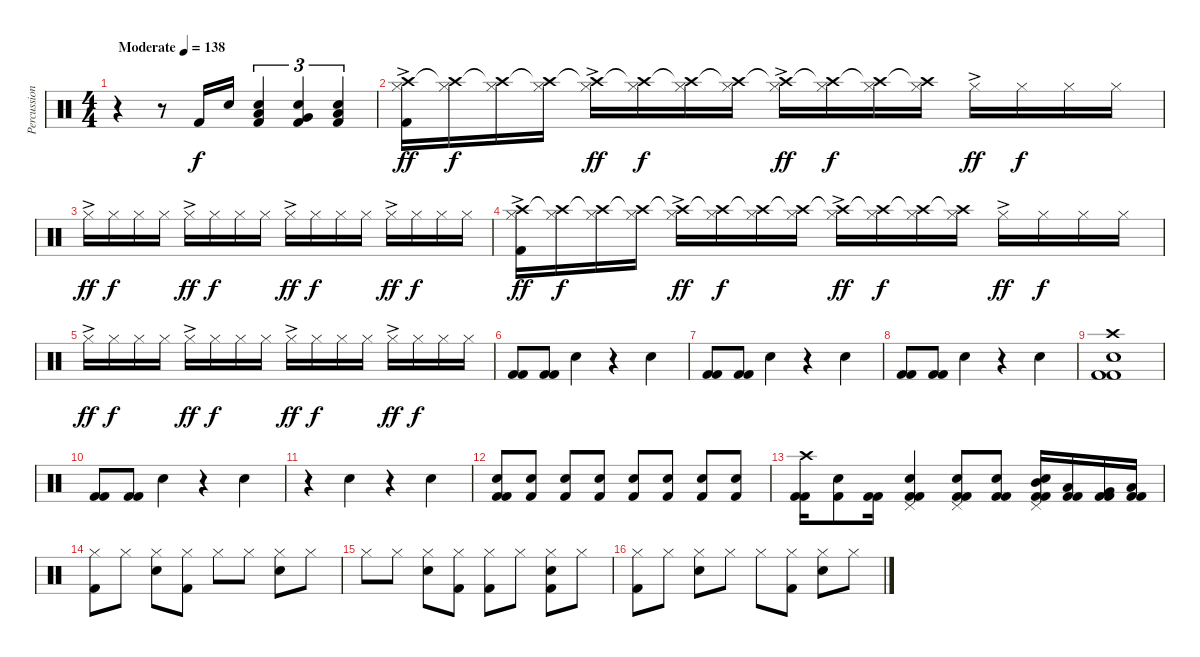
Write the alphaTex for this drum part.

\track ("Percussion" "Percussion") {instrument percussion}
\staff {score}
\articulation defaults
\ts (4 4)
\tempo (138 "Moderate")
\clef neutral
\ks c
r.4{dy f} r.8 "Kick (hit) 2".16 "Snare (hit) 2".16 ("Low Tom (hit)" "Snare (hit) 2" "Kick (hit) 2").4{tu (3 2)} ("Very Low Tom (hit)" "Snare (hit) 2" "Kick (hit) 2").4{tu (3 2)} ("Low Floor Tom (hit)" "Snare (hit) 2" "Kick (hit) 2").4{tu (3 2)} |
("Hi-Hat (closed)"{ac} "Crash high (hit)" "Kick (hit) 2").16{dy ff} ("Hi-Hat (closed)" "Crash high (hit)"{t}).16{dy f} ("Hi-Hat (closed)" "Crash high (hit)"{t}).16 ("Hi-Hat (closed)" "Crash high (hit)"{t}).16 ("Hi-Hat (closed)"{ac} "Crash high (hit)"{t}).16{dy ff} ("Hi-Hat (closed)" "Crash high (hit)"{t}).16{dy f} ("Hi-Hat (closed)" "Crash high (hit)"{t}).16 ("Hi-Hat (closed)" "Crash high (hit)"{t}).16 ("Hi-Hat (closed)"{ac} "Crash high (hit)"{t}).16{dy ff} ("Hi-Hat (closed)" "Crash high (hit)"{t}).16{dy f} ("Hi-Hat (closed)" "Crash high (hit)"{t}).16 ("Hi-Hat (closed)" "Crash high (hit)"{t}).16 "Hi-Hat (closed)"{ac}.16{dy ff} "Hi-Hat (closed)".16{dy f} "Hi-Hat (closed)".16 "Hi-Hat (closed)".16 |
"Hi-Hat (closed)"{ac}.16{dy ff} "Hi-Hat (closed)".16{dy f} "Hi-Hat (closed)".16 "Hi-Hat (closed)".16 "Hi-Hat (closed)"{ac}.16{dy ff} "Hi-Hat (closed)".16{dy f} "Hi-Hat (closed)".16 "Hi-Hat (closed)".16 "Hi-Hat (closed)"{ac}.16{dy ff} "Hi-Hat (closed)".16{dy f} "Hi-Hat (closed)".16 "Hi-Hat (closed)".16 "Hi-Hat (closed)"{ac}.16{dy ff} "Hi-Hat (closed)".16{dy f} "Hi-Hat (closed)".16 "Hi-Hat (closed)".16 |
("Hi-Hat (closed)"{ac} "Crash high (hit)" "Kick (hit) 2").16{dy ff} ("Hi-Hat (closed)" "Crash high (hit)"{t}).16{dy f} ("Hi-Hat (closed)" "Crash high (hit)"{t}).16 ("Hi-Hat (closed)" "Crash high (hit)"{t}).16 ("Hi-Hat (closed)"{ac} "Crash high (hit)"{t}).16{dy ff} ("Hi-Hat (closed)" "Crash high (hit)"{t}).16{dy f} ("Hi-Hat (closed)" "Crash high (hit)"{t}).16 ("Hi-Hat (closed)" "Crash high (hit)"{t}).16 ("Hi-Hat (closed)"{ac} "Crash high (hit)"{t}).16{dy ff} ("Hi-Hat (closed)" "Crash high (hit)"{t}).16{dy f} ("Hi-Hat (closed)" "Crash high (hit)"{t}).16 ("Hi-Hat (closed)" "Crash high (hit)"{t}).16 "Hi-Hat (closed)"{ac}.16{dy ff} "Hi-Hat (closed)".16{dy f} "Hi-Hat (closed)".16 "Hi-Hat (closed)".16 |
"Hi-Hat (closed)"{ac}.16{dy ff} "Hi-Hat (closed)".16{dy f} "Hi-Hat (closed)".16 "Hi-Hat (closed)".16 "Hi-Hat (closed)"{ac}.16{dy ff} "Hi-Hat (closed)".16{dy f} "Hi-Hat (closed)".16 "Hi-Hat (closed)".16 "Hi-Hat (closed)"{ac}.16{dy ff} "Hi-Hat (closed)".16{dy f} "Hi-Hat (closed)".16 "Hi-Hat (closed)".16 "Hi-Hat (closed)"{ac}.16{dy ff} "Hi-Hat (closed)".16{dy f} "Hi-Hat (closed)".16 "Hi-Hat (closed)".16 |
("Kick (hit) 2" "Kick (hit) 2").8 ("Kick (hit) 2" "Kick (hit) 2").8 "Snare (hit) 2".4 r.4 "Snare (hit) 2".4 |
("Kick (hit) 2" "Kick (hit) 2").8 ("Kick (hit) 2" "Kick (hit) 2").8 "Snare (hit) 2".4 r.4 "Snare (hit) 2".4 |
("Kick (hit) 2" "Kick (hit) 2").8 ("Kick (hit) 2" "Kick (hit) 2").8 "Snare (hit) 2".4 r.4 "Snare (hit) 2".4 |
("Crash high (hit)" "Snare (hit) 2" "Kick (hit) 2" "Kick (hit) 2").1 |
("Kick (hit) 2" "Kick (hit) 2").8 ("Kick (hit) 2" "Kick (hit) 2").8 "Snare (hit) 2".4 r.4 "Snare (hit) 2".4 |
r.4 "Snare (hit) 2".4 r.4 "Snare (hit) 2".4 |
("Snare (hit) 2" "Kick (hit) 2" "Kick (hit) 2").8 ("Snare (hit) 2" "Kick (hit) 2").8{volume 6} ("Snare (hit) 2" "Kick (hit) 2").8{volume 15} ("Snare (hit) 2" "Kick (hit) 2").8 ("Snare (hit) 2" "Kick (hit) 2").8 ("Snare (hit) 2" "Kick (hit) 2").8 ("Snare (hit) 2" "Kick (hit) 2").8 ("Snare (hit) 2" "Kick (hit) 2").8 |
("Crash high (hit)" "Kick (hit) 2" "Kick (hit) 2").16 ("Snare (hit) 2" "Kick (hit) 2").8 ("Kick (hit) 2" "Kick (hit) 2").16 ("Pedal Hi-Hat (hit)" "Snare (hit) 2" "Kick (hit) 2" "Kick (hit) 2").4 ("Pedal Hi-Hat (hit)" "Snare (hit) 2" "Kick (hit) 2" "Kick (hit) 2").8 ("Snare (hit) 2" "Kick (hit) 2" "Kick (hit) 2").8 ("Pedal Hi-Hat (hit)" "Mid Tom (hit)" "Snare (hit) 2" "Kick (hit) 2" "Kick (hit) 2").16 ("Low Tom (hit)" "Kick (hit) 2" "Kick (hit) 2").16 ("Very Low Tom (hit)" "Kick (hit) 2" "Kick (hit) 2").16 ("Low Floor Tom (hit)" "Kick (hit) 2" "Kick (hit) 2").16 |
("Hi-Hat (closed)" "Kick (hit) 2").8 "Hi-Hat (closed)".8 ("Hi-Hat (closed)" "Snare (hit) 2").8 ("Hi-Hat (closed)" "Kick (hit) 2").8 "Hi-Hat (closed)".8 "Hi-Hat (closed)".8 ("Hi-Hat (closed)" "Snare (hit) 2").8 "Hi-Hat (closed)".8 |
"Hi-Hat (closed)".8 "Hi-Hat (closed)".8 ("Hi-Hat (closed)" "Snare (hit) 2").8 ("Hi-Hat (closed)" "Kick (hit) 2").8 ("Hi-Hat (closed)" "Kick (hit) 2").8 "Hi-Hat (closed)".8 ("Hi-Hat (closed)" "Snare (hit) 2" "Kick (hit) 2").8 "Hi-Hat (closed)".8 |
("Hi-Hat (closed)" "Kick (hit) 2").8 "Hi-Hat (closed)".8 ("Hi-Hat (closed)" "Snare (hit) 2").8 "Hi-Hat (closed)".8 "Hi-Hat (closed)".8 ("Hi-Hat (closed)" "Kick (hit) 2").8 ("Hi-Hat (closed)" "Snare (hit) 2").8 "Hi-Hat (closed)".8
